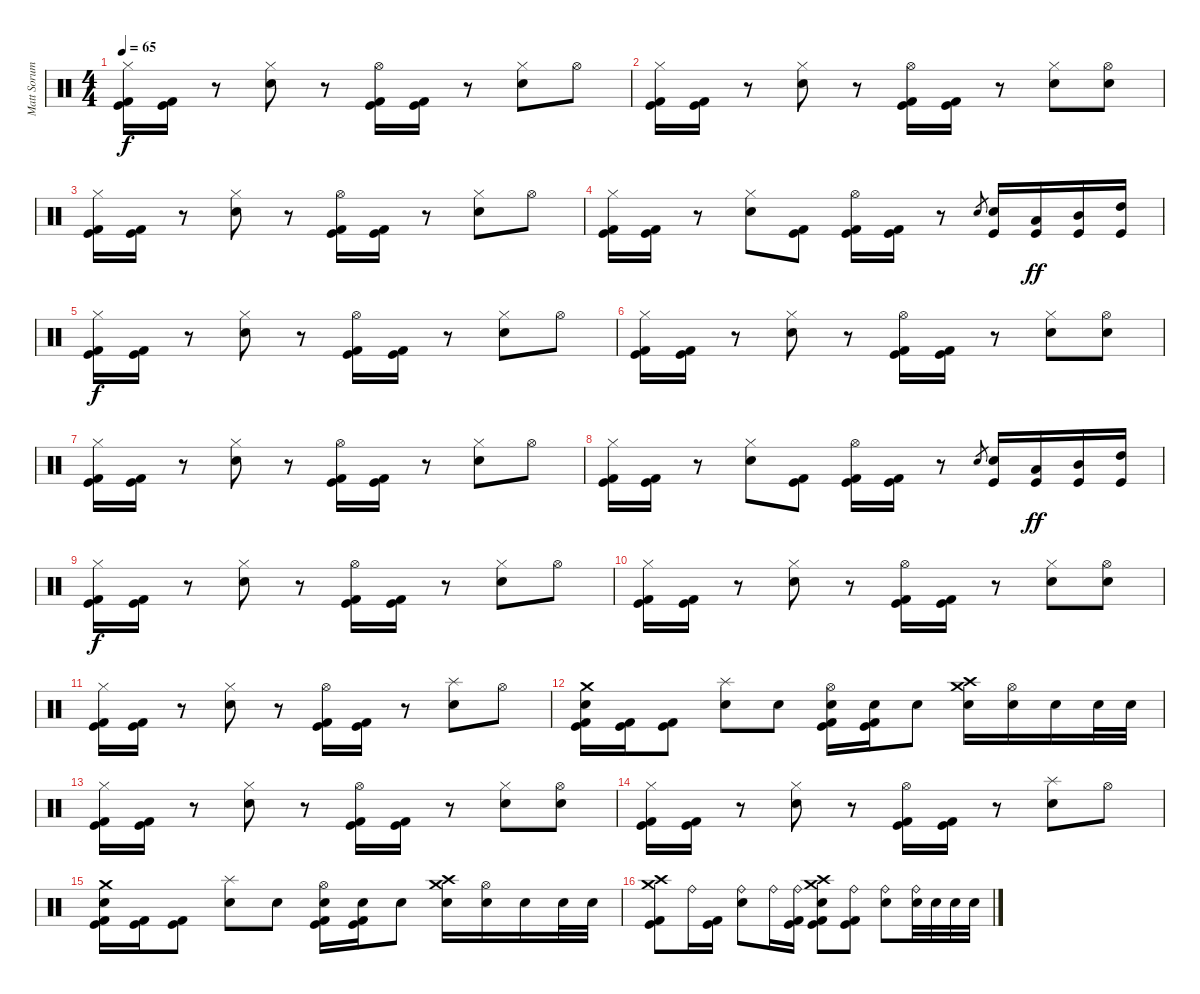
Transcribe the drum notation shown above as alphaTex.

\track ("Matt Sorum" "Matt Sorum") {instrument percussion}
\staff {score}
\articulation defaults
\ts (4 4)
\tempo 65
\clef neutral
\ks c
("Hi-Hat (closed)" "Kick (hit) 2" "Kick (hit)").16{dy f} ("Kick (hit) 2" "Kick (hit)").16 r.8 ("Hi-Hat (closed)" "Electric Snare (hit)").8 r.8 ("Hi-Hat (open)" "Kick (hit) 2" "Kick (hit)").16 ("Kick (hit) 2" "Kick (hit)").16 r.8 ("Hi-Hat (closed)" "Electric Snare (hit)").8 "Hi-Hat (open)".8 |
("Hi-Hat (closed)" "Kick (hit) 2" "Kick (hit)").16 ("Kick (hit) 2" "Kick (hit)").16 r.8 ("Hi-Hat (closed)" "Electric Snare (hit)").8 r.8 ("Hi-Hat (open)" "Kick (hit) 2" "Kick (hit)").16 ("Kick (hit) 2" "Kick (hit)").16 r.8 ("Hi-Hat (closed)" "Electric Snare (hit)").8 ("Hi-Hat (open)" "Electric Snare (hit)").8 |
("Hi-Hat (closed)" "Kick (hit) 2" "Kick (hit)").16 ("Kick (hit) 2" "Kick (hit)").16 r.8 ("Hi-Hat (closed)" "Electric Snare (hit)").8 r.8 ("Hi-Hat (open)" "Kick (hit) 2" "Kick (hit)").16 ("Kick (hit) 2" "Kick (hit)").16 r.8 ("Hi-Hat (closed)" "Electric Snare (hit)").8 "Hi-Hat (open)".8 |
("Hi-Hat (closed)" "Kick (hit) 2" "Kick (hit)").16 ("Kick (hit) 2" "Kick (hit)").16 r.8 ("Hi-Hat (closed)" "Electric Snare (hit)").8 ("Kick (hit) 2" "Kick (hit)").8 ("Hi-Hat (open)" "Kick (hit) 2" "Kick (hit)").16 ("Kick (hit) 2" "Kick (hit)").16 r.8 "Electric Snare (hit)".8{gr} ("Electric Snare (hit)" "Kick (hit)").16 ("Low Tom (hit)" "Kick (hit)").16{dy ff} ("Mid Tom (hit)" "Kick (hit)").16 ("High Tom (hit)" "Kick (hit)").16 |
("Hi-Hat (closed)" "Kick (hit) 2" "Kick (hit)").16{dy f} ("Kick (hit) 2" "Kick (hit)").16 r.8 ("Hi-Hat (closed)" "Electric Snare (hit)").8 r.8 ("Hi-Hat (open)" "Kick (hit) 2" "Kick (hit)").16 ("Kick (hit) 2" "Kick (hit)").16 r.8 ("Hi-Hat (closed)" "Electric Snare (hit)").8 "Hi-Hat (open)".8 |
("Hi-Hat (closed)" "Kick (hit) 2" "Kick (hit)").16 ("Kick (hit) 2" "Kick (hit)").16 r.8 ("Hi-Hat (closed)" "Electric Snare (hit)").8 r.8 ("Hi-Hat (open)" "Kick (hit) 2" "Kick (hit)").16 ("Kick (hit) 2" "Kick (hit)").16 r.8 ("Hi-Hat (closed)" "Electric Snare (hit)").8 ("Hi-Hat (open)" "Electric Snare (hit)").8 |
("Hi-Hat (closed)" "Kick (hit) 2" "Kick (hit)").16 ("Kick (hit) 2" "Kick (hit)").16 r.8 ("Hi-Hat (closed)" "Electric Snare (hit)").8 r.8 ("Hi-Hat (open)" "Kick (hit) 2" "Kick (hit)").16 ("Kick (hit) 2" "Kick (hit)").16 r.8 ("Hi-Hat (closed)" "Electric Snare (hit)").8 "Hi-Hat (open)".8 |
("Hi-Hat (closed)" "Kick (hit) 2" "Kick (hit)").16 ("Kick (hit) 2" "Kick (hit)").16 r.8 ("Hi-Hat (closed)" "Electric Snare (hit)").8 ("Kick (hit) 2" "Kick (hit)").8 ("Hi-Hat (open)" "Kick (hit) 2" "Kick (hit)").16 ("Kick (hit) 2" "Kick (hit)").16 r.8 "Electric Snare (hit)".8{gr} ("Electric Snare (hit)" "Kick (hit)").16 ("Low Tom (hit)" "Kick (hit)").16{dy ff} ("Mid Tom (hit)" "Kick (hit)").16 ("High Tom (hit)" "Kick (hit)").16 |
("Hi-Hat (closed)" "Kick (hit) 2" "Kick (hit)").16{dy f} ("Kick (hit) 2" "Kick (hit)").16 r.8 ("Hi-Hat (closed)" "Electric Snare (hit)").8 r.8 ("Hi-Hat (open)" "Kick (hit) 2" "Kick (hit)").16 ("Kick (hit) 2" "Kick (hit)").16 r.8 ("Hi-Hat (closed)" "Electric Snare (hit)").8 "Hi-Hat (open)".8 |
("Hi-Hat (closed)" "Kick (hit) 2" "Kick (hit)").16 ("Kick (hit) 2" "Kick (hit)").16 r.8 ("Hi-Hat (closed)" "Electric Snare (hit)").8 r.8 ("Hi-Hat (open)" "Kick (hit) 2" "Kick (hit)").16 ("Kick (hit) 2" "Kick (hit)").16 r.8 ("Hi-Hat (closed)" "Electric Snare (hit)").8 ("Hi-Hat (open)" "Electric Snare (hit)").8 |
("Hi-Hat (closed)" "Kick (hit) 2" "Kick (hit)").16 ("Kick (hit) 2" "Kick (hit)").16 r.8 ("Hi-Hat (closed)" "Electric Snare (hit)").8 r.8 ("Hi-Hat (open)" "Kick (hit) 2" "Kick (hit)").16 ("Kick (hit) 2" "Kick (hit)").16 r.8 ("Splash (hit)" "Electric Snare (hit)").8 "Hi-Hat (open)".8 |
("Crash medium (hit)" "Electric Snare (hit)" "Kick (hit) 2" "Kick (hit)").16 ("Kick (hit) 2" "Kick (hit)").16 ("Kick (hit) 2" "Kick (hit)").8 ("Splash (hit)" "Electric Snare (hit)").8 "Electric Snare (hit)".8 ("Hi-Hat (open)" "Electric Snare (hit)" "Kick (hit) 2" "Kick (hit)").16 ("Electric Snare (hit)" "Kick (hit) 2" "Kick (hit)").16 "Electric Snare (hit)".8 ("Crash high (hit)" "Crash medium (hit)" "Electric Snare (hit)").16 ("Hi-Hat (open)" "Electric Snare (hit)").16 "Electric Snare (hit)".16 "Electric Snare (hit)".32 "Electric Snare (hit)".32 |
("Hi-Hat (closed)" "Kick (hit) 2" "Kick (hit)").16 ("Kick (hit) 2" "Kick (hit)").16 r.8 ("Hi-Hat (closed)" "Electric Snare (hit)").8 r.8 ("Hi-Hat (open)" "Kick (hit) 2" "Kick (hit)").16 ("Kick (hit) 2" "Kick (hit)").16 r.8 ("Hi-Hat (closed)" "Electric Snare (hit)").8 ("Hi-Hat (open)" "Electric Snare (hit)").8 |
("Hi-Hat (closed)" "Kick (hit) 2" "Kick (hit)").16 ("Kick (hit) 2" "Kick (hit)").16 r.8 ("Hi-Hat (closed)" "Electric Snare (hit)").8 r.8 ("Hi-Hat (open)" "Kick (hit) 2" "Kick (hit)").16 ("Kick (hit) 2" "Kick (hit)").16 r.8 ("Splash (hit)" "Electric Snare (hit)").8 "Hi-Hat (open)".8 |
("Crash medium (hit)" "Electric Snare (hit)" "Kick (hit) 2" "Kick (hit)").16 ("Kick (hit) 2" "Kick (hit)").16 ("Kick (hit) 2" "Kick (hit)").8 ("Splash (hit)" "Electric Snare (hit)").8 "Electric Snare (hit)".8 ("Hi-Hat (open)" "Electric Snare (hit)" "Kick (hit) 2" "Kick (hit)").16 ("Electric Snare (hit)" "Kick (hit) 2" "Kick (hit)").16 "Electric Snare (hit)".8 ("Crash high (hit)" "Crash medium (hit)" "Electric Snare (hit)").16 ("Hi-Hat (open)" "Electric Snare (hit)").16 "Electric Snare (hit)".16 "Electric Snare (hit)".32 "Electric Snare (hit)".32 |
("Crash medium (hit)" "Crash high (hit)" "Kick (hit) 2" "Kick (hit)").8 "Ride (bell)".16 ("Kick (hit) 2" "Kick (hit)").16 ("Ride (bell)" "Electric Snare (hit)").8 "Ride (bell)".16 ("Ride (bell)" "Kick (hit) 2" "Kick (hit)").16 ("Crash medium (hit)" "Crash high (hit)" "Electric Snare (hit)" "Kick (hit) 2" "Kick (hit)").8 ("Ride (bell)" "Kick (hit) 2" "Kick (hit)").8 ("Ride (bell)" "Electric Snare (hit)").8 ("Ride (bell)" "Electric Snare (hit)").32 "Electric Snare (hit)".32 "Electric Snare (hit)".32 "Electric Snare (hit)".32
